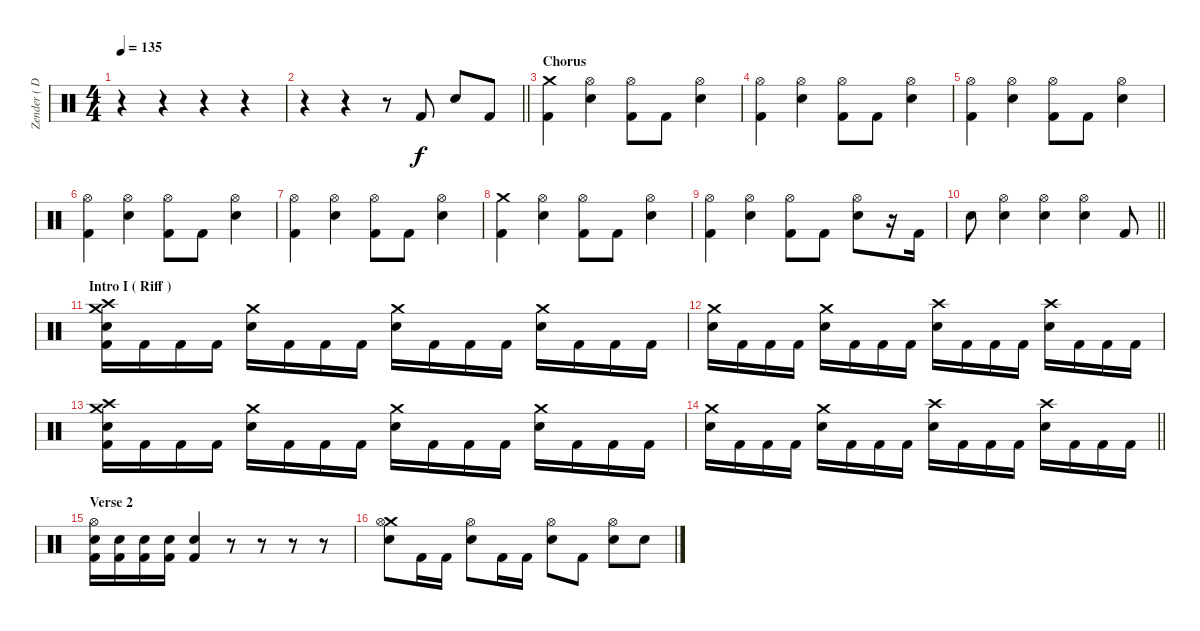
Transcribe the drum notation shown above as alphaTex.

\track ("Zender ( Drums )" "Zender ( D") {instrument percussion}
\staff {score}
\articulation defaults
\ts (4 4)
\tempo 135
\clef neutral
\ks c
r.4{dy f} r.4 r.4 r.4 |
\barLineRight lightlight
r.4 r.4 r.8 "Kick (hit) 2".8 "Electric Snare (hit)".8 "Kick (hit) 2".8 |
\section ("" "Chorus")
("Crash medium (hit)" "Kick (hit) 2").4 ("Hi-Hat (open)" "Electric Snare (hit)").4 ("Hi-Hat (open)" "Kick (hit) 2").8 "Kick (hit) 2".8 ("Hi-Hat (open)" "Electric Snare (hit)").4 |
("Hi-Hat (open)" "Kick (hit) 2").4 ("Hi-Hat (open)" "Electric Snare (hit)").4 ("Hi-Hat (open)" "Kick (hit) 2").8 "Kick (hit) 2".8 ("Hi-Hat (open)" "Electric Snare (hit)").4 |
("Hi-Hat (open)" "Kick (hit) 2").4 ("Hi-Hat (open)" "Electric Snare (hit)").4 ("Hi-Hat (open)" "Kick (hit) 2").8 "Kick (hit) 2".8 ("Hi-Hat (open)" "Electric Snare (hit)").4 |
("Hi-Hat (open)" "Kick (hit) 2").4 ("Hi-Hat (open)" "Electric Snare (hit)").4 ("Hi-Hat (open)" "Kick (hit) 2").8 "Kick (hit) 2".8 ("Hi-Hat (open)" "Electric Snare (hit)").4 |
("Hi-Hat (open)" "Kick (hit) 2").4 ("Hi-Hat (open)" "Electric Snare (hit)").4 ("Hi-Hat (open)" "Kick (hit) 2").8 "Kick (hit) 2".8 ("Hi-Hat (open)" "Electric Snare (hit)").4 |
("Crash medium (hit)" "Kick (hit) 2").4 ("Hi-Hat (open)" "Electric Snare (hit)").4 ("Hi-Hat (open)" "Kick (hit) 2").8 "Kick (hit) 2".8 ("Hi-Hat (open)" "Electric Snare (hit)").4 |
("Hi-Hat (open)" "Kick (hit) 2").4 ("Hi-Hat (open)" "Electric Snare (hit)").4 ("Hi-Hat (open)" "Kick (hit) 2").8 "Kick (hit) 2".8 ("Hi-Hat (open)" "Electric Snare (hit)").8 r.16 "Kick (hit) 2".16 |
\barLineRight lightlight "Electric Snare (hit)".8
("Hi-Hat (open)" "Electric Snare (hit)").4 ("Hi-Hat (open)" "Electric Snare (hit)").4 ("Hi-Hat (open)" "Electric Snare (hit)").4 "Kick (hit) 2".8 |
\section ("" "Intro I ( Riff )")
("Crash medium (hit)" "Crash high (hit)" "Electric Snare (hit)" "Kick (hit) 2").16 "Kick (hit) 2".16 "Kick (hit) 2".16 "Kick (hit) 2".16 ("Crash medium (hit)" "Electric Snare (hit)").16 "Kick (hit) 2".16 "Kick (hit) 2".16 "Kick (hit) 2".16 ("Crash medium (hit)" "Electric Snare (hit)").16 "Kick (hit) 2".16 "Kick (hit) 2".16 "Kick (hit) 2".16 ("Crash medium (hit)" "Electric Snare (hit)").16 "Kick (hit) 2".16 "Kick (hit) 2".16 "Kick (hit) 2".16 |
("Crash medium (hit)" "Electric Snare (hit)").16 "Kick (hit) 2".16 "Kick (hit) 2".16 "Kick (hit) 2".16 ("Crash medium (hit)" "Electric Snare (hit)").16 "Kick (hit) 2".16 "Kick (hit) 2".16 "Kick (hit) 2".16 ("Crash high (hit)" "Electric Snare (hit)").16 "Kick (hit) 2".16 "Kick (hit) 2".16 "Kick (hit) 2".16 ("Crash high (hit)" "Electric Snare (hit)").16 "Kick (hit) 2".16 "Kick (hit) 2".16 "Kick (hit) 2".16 |
("Crash medium (hit)" "Crash high (hit)" "Electric Snare (hit)" "Kick (hit) 2").16 "Kick (hit) 2".16 "Kick (hit) 2".16 "Kick (hit) 2".16 ("Crash medium (hit)" "Electric Snare (hit)").16 "Kick (hit) 2".16 "Kick (hit) 2".16 "Kick (hit) 2".16 ("Crash medium (hit)" "Electric Snare (hit)").16 "Kick (hit) 2".16 "Kick (hit) 2".16 "Kick (hit) 2".16 ("Crash medium (hit)" "Electric Snare (hit)").16 "Kick (hit) 2".16 "Kick (hit) 2".16 "Kick (hit) 2".16 |
\barLineRight lightlight
("Crash medium (hit)" "Electric Snare (hit)").16 "Kick (hit) 2".16 "Kick (hit) 2".16 "Kick (hit) 2".16 ("Crash medium (hit)" "Electric Snare (hit)").16 "Kick (hit) 2".16 "Kick (hit) 2".16 "Kick (hit) 2".16 ("Crash high (hit)" "Electric Snare (hit)").16 "Kick (hit) 2".16 "Kick (hit) 2".16 "Kick (hit) 2".16 ("Crash high (hit)" "Electric Snare (hit)").16 "Kick (hit) 2".16 "Kick (hit) 2".16 "Kick (hit) 2".16 |
\section ("" "Verse 2")
("Hi-Hat (open)" "Electric Snare (hit)" "Kick (hit) 2").16 ("Electric Snare (hit)" "Kick (hit) 2").16 ("Electric Snare (hit)" "Kick (hit) 2").16 ("Electric Snare (hit)" "Kick (hit) 2").16 ("Electric Snare (hit)" "Kick (hit) 2").4 r.8 r.8 r.8 r.8 |
("Crash medium (hit)" "Hi-Hat (open)" "Electric Snare (hit)").8 "Kick (hit) 2".16 "Kick (hit) 2".16 ("Hi-Hat (open)" "Electric Snare (hit)").8 "Kick (hit) 2".16 "Kick (hit) 2".16 ("Hi-Hat (open)" "Electric Snare (hit)").8 "Kick (hit) 2".8 ("Hi-Hat (open)" "Electric Snare (hit)").8 "Electric Snare (hit)".8
